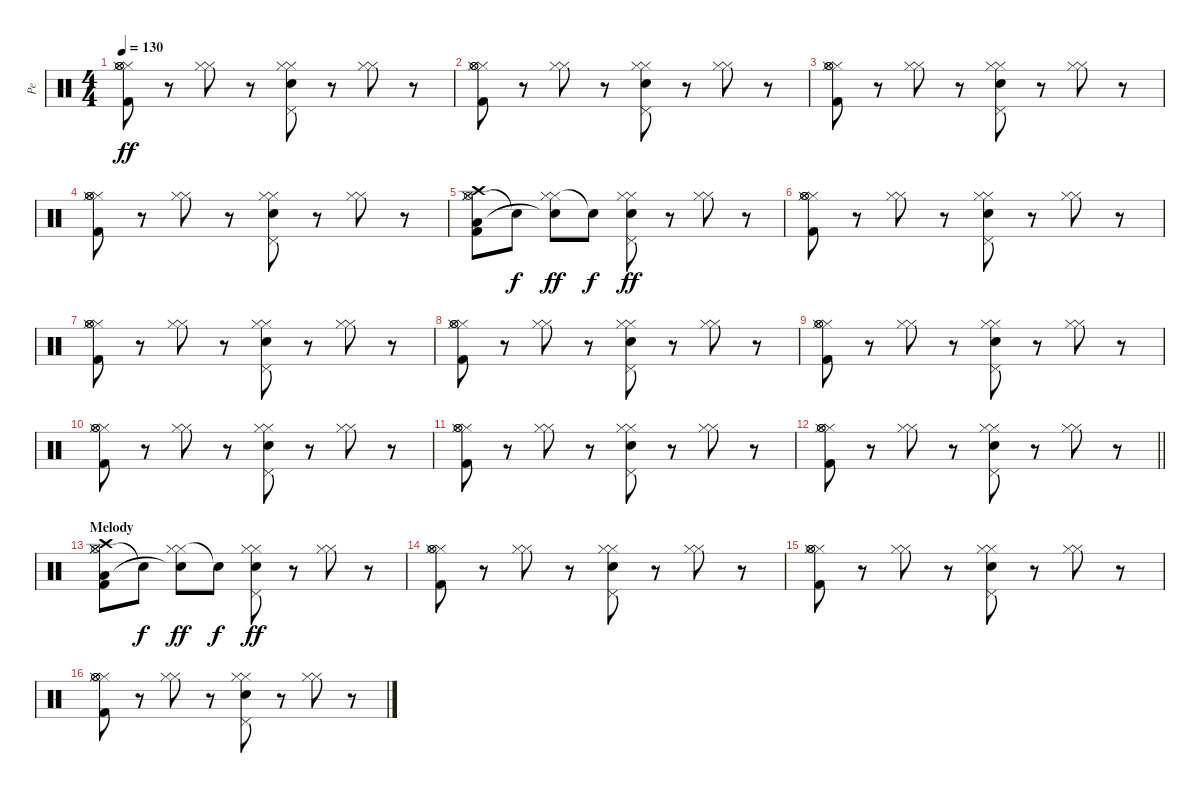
\track ("Pe" "Pe") {instrument percussion}
\staff {score}
\articulation defaults
\ts (4 4)
\tempo 130
\clef neutral
\ks c
("Hi-Hat (closed)" "Hi-Hat (closed)" "Hi-Hat (open)" "Hi-Hat (open)" "Kick (hit) 2").8{dy ff} r.8 ("Hi-Hat (closed)" "Hi-Hat (closed)").8 r.8 ("Hi-Hat (closed)" "Hi-Hat (closed)" "Pedal Hi-Hat (hit)" "Electric Snare (hit)").8 r.8 ("Hi-Hat (closed)" "Hi-Hat (closed)").8 r.8 |
("Hi-Hat (closed)" "Hi-Hat (closed)" "Hi-Hat (open)" "Hi-Hat (open)" "Kick (hit) 2").8 r.8 ("Hi-Hat (closed)" "Hi-Hat (closed)").8 r.8 ("Hi-Hat (closed)" "Hi-Hat (closed)" "Pedal Hi-Hat (hit)" "Electric Snare (hit)").8 r.8 ("Hi-Hat (closed)" "Hi-Hat (closed)").8 r.8 |
("Hi-Hat (closed)" "Hi-Hat (closed)" "Hi-Hat (open)" "Hi-Hat (open)" "Kick (hit) 2").8 r.8 ("Hi-Hat (closed)" "Hi-Hat (closed)").8 r.8 ("Hi-Hat (closed)" "Hi-Hat (closed)" "Pedal Hi-Hat (hit)" "Electric Snare (hit)").8 r.8 ("Hi-Hat (closed)" "Hi-Hat (closed)").8 r.8 |
("Hi-Hat (closed)" "Hi-Hat (closed)" "Hi-Hat (open)" "Hi-Hat (open)" "Kick (hit) 2").8 r.8 ("Hi-Hat (closed)" "Hi-Hat (closed)").8 r.8 ("Hi-Hat (closed)" "Hi-Hat (closed)" "Pedal Hi-Hat (hit)" "Electric Snare (hit)").8 r.8 ("Hi-Hat (closed)" "Hi-Hat (closed)").8 r.8 |
("Hi-Hat (closed)" "Hi-Hat (closed)" "Low Floor Tom (hit)" "Hi-Hat (open)" "Crash high (hit)" "Kick (hit) 2").8 "Snare (hit)"{t}.8{dy f} ("Hi-Hat (closed)" "Hi-Hat (closed)" "Snare (hit)"{t}).8{dy ff} "Snare (hit)"{t}.8{dy f} ("Hi-Hat (closed)" "Hi-Hat (closed)" "Pedal Hi-Hat (hit)" "Electric Snare (hit)").8{dy ff} r.8 ("Hi-Hat (closed)" "Hi-Hat (closed)").8 r.8 |
("Hi-Hat (closed)" "Hi-Hat (closed)" "Hi-Hat (open)" "Hi-Hat (open)" "Kick (hit) 2").8 r.8 ("Hi-Hat (closed)" "Hi-Hat (closed)").8 r.8 ("Hi-Hat (closed)" "Hi-Hat (closed)" "Pedal Hi-Hat (hit)" "Electric Snare (hit)").8 r.8 ("Hi-Hat (closed)" "Hi-Hat (closed)").8 r.8 |
("Hi-Hat (closed)" "Hi-Hat (closed)" "Hi-Hat (open)" "Hi-Hat (open)" "Kick (hit) 2").8 r.8 ("Hi-Hat (closed)" "Hi-Hat (closed)").8 r.8 ("Hi-Hat (closed)" "Hi-Hat (closed)" "Pedal Hi-Hat (hit)" "Electric Snare (hit)").8 r.8 ("Hi-Hat (closed)" "Hi-Hat (closed)").8 r.8 |
("Hi-Hat (closed)" "Hi-Hat (closed)" "Hi-Hat (open)" "Hi-Hat (open)" "Kick (hit) 2").8 r.8 ("Hi-Hat (closed)" "Hi-Hat (closed)").8 r.8 ("Hi-Hat (closed)" "Hi-Hat (closed)" "Pedal Hi-Hat (hit)" "Electric Snare (hit)").8 r.8 ("Hi-Hat (closed)" "Hi-Hat (closed)").8 r.8 |
("Hi-Hat (closed)" "Hi-Hat (closed)" "Hi-Hat (open)" "Hi-Hat (open)" "Kick (hit) 2").8 r.8 ("Hi-Hat (closed)" "Hi-Hat (closed)").8 r.8 ("Hi-Hat (closed)" "Hi-Hat (closed)" "Pedal Hi-Hat (hit)" "Electric Snare (hit)").8 r.8 ("Hi-Hat (closed)" "Hi-Hat (closed)").8 r.8 |
("Hi-Hat (closed)" "Hi-Hat (closed)" "Hi-Hat (open)" "Hi-Hat (open)" "Kick (hit) 2").8 r.8 ("Hi-Hat (closed)" "Hi-Hat (closed)").8 r.8 ("Hi-Hat (closed)" "Hi-Hat (closed)" "Pedal Hi-Hat (hit)" "Electric Snare (hit)").8 r.8 ("Hi-Hat (closed)" "Hi-Hat (closed)").8 r.8 |
("Hi-Hat (closed)" "Hi-Hat (closed)" "Hi-Hat (open)" "Hi-Hat (open)" "Kick (hit) 2").8 r.8 ("Hi-Hat (closed)" "Hi-Hat (closed)").8 r.8 ("Hi-Hat (closed)" "Hi-Hat (closed)" "Pedal Hi-Hat (hit)" "Electric Snare (hit)").8 r.8 ("Hi-Hat (closed)" "Hi-Hat (closed)").8 r.8 |
\barLineRight lightlight
("Hi-Hat (closed)" "Hi-Hat (closed)" "Hi-Hat (open)" "Hi-Hat (open)" "Kick (hit) 2").8 r.8 ("Hi-Hat (closed)" "Hi-Hat (closed)").8 r.8 ("Hi-Hat (closed)" "Hi-Hat (closed)" "Pedal Hi-Hat (hit)" "Electric Snare (hit)").8 r.8 ("Hi-Hat (closed)" "Hi-Hat (closed)").8 r.8 |
\section ("" "Melody")
("Hi-Hat (closed)" "Hi-Hat (closed)" "Low Floor Tom (hit)" "Hi-Hat (open)" "Crash high (hit)" "Kick (hit) 2").8 "Snare (hit)"{t}.8{dy f} ("Hi-Hat (closed)" "Hi-Hat (closed)" "Snare (hit)"{t}).8{dy ff} "Snare (hit)"{t}.8{dy f} ("Hi-Hat (closed)" "Hi-Hat (closed)" "Pedal Hi-Hat (hit)" "Electric Snare (hit)").8{dy ff} r.8 ("Hi-Hat (closed)" "Hi-Hat (closed)").8 r.8 |
("Hi-Hat (closed)" "Hi-Hat (closed)" "Hi-Hat (open)" "Hi-Hat (open)" "Kick (hit) 2").8 r.8 ("Hi-Hat (closed)" "Hi-Hat (closed)").8 r.8 ("Hi-Hat (closed)" "Hi-Hat (closed)" "Pedal Hi-Hat (hit)" "Electric Snare (hit)").8 r.8 ("Hi-Hat (closed)" "Hi-Hat (closed)").8 r.8 |
("Hi-Hat (closed)" "Hi-Hat (closed)" "Hi-Hat (open)" "Hi-Hat (open)" "Kick (hit) 2").8 r.8 ("Hi-Hat (closed)" "Hi-Hat (closed)").8 r.8 ("Hi-Hat (closed)" "Hi-Hat (closed)" "Pedal Hi-Hat (hit)" "Electric Snare (hit)").8 r.8 ("Hi-Hat (closed)" "Hi-Hat (closed)").8 r.8 |
("Hi-Hat (closed)" "Hi-Hat (closed)" "Hi-Hat (open)" "Hi-Hat (open)" "Kick (hit) 2").8 r.8 ("Hi-Hat (closed)" "Hi-Hat (closed)").8 r.8 ("Hi-Hat (closed)" "Hi-Hat (closed)" "Pedal Hi-Hat (hit)" "Electric Snare (hit)").8 r.8 ("Hi-Hat (closed)" "Hi-Hat (closed)").8 r.8
